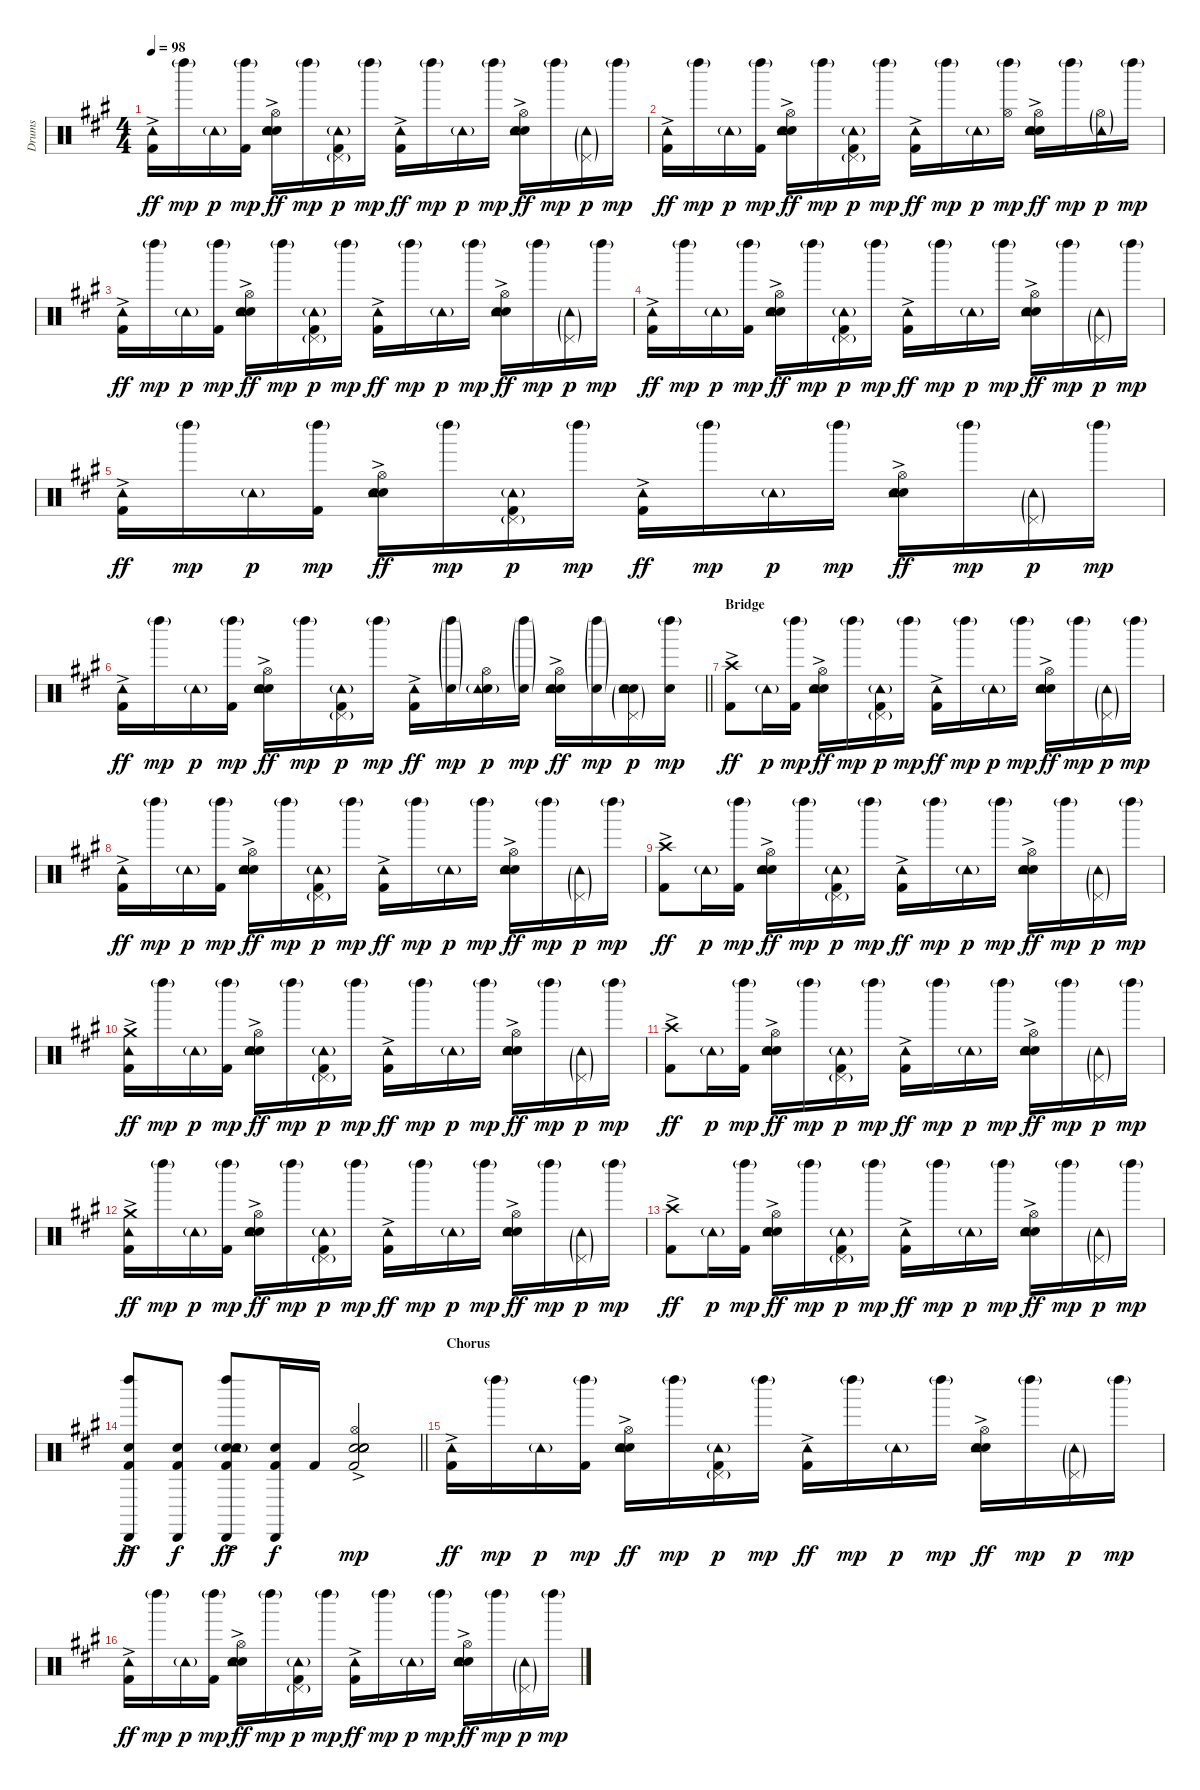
\track ("Drums" "Drums") {instrument percussion}
\staff {score}
\articulation defaults
\ts (4 4)
\tempo 98
\clef neutral
\ks a
("Kick (hit) 2"{ac} "Tambourine (hit)").16{dy ff} "Left Maraca (hit)"{g}.16{dy mp} "Tambourine (hit)"{g}.16{dy p} ("Kick (hit) 2" "Left Maraca (hit)"{g}).16{dy mp} ("Snare (hit) 2"{ac} "Electric Snare (hit)" "Hi-Hat (open)" "Tambourine (hit)").16{dy ff} "Left Maraca (hit)"{g}.16{dy mp} ("Kick (hit) 2" "Pedal Hi-Hat (hit)"{g} "Tambourine (hit)"{g}).16{dy p} "Left Maraca (hit)"{g}.16{dy mp} ("Kick (hit) 2"{ac} "Tambourine (hit)").16{dy ff} "Left Maraca (hit)"{g}.16{dy mp} "Tambourine (hit)"{g}.16{dy p} "Left Maraca (hit)"{g}.16{dy mp} ("Snare (hit) 2"{ac} "Electric Snare (hit)" "Hi-Hat (open)" "Tambourine (hit)").16{dy ff} "Left Maraca (hit)"{g}.16{dy mp} ("Pedal Hi-Hat (hit)"{g} "Tambourine (hit)"{g}).16{dy p} "Left Maraca (hit)"{g}.16{dy mp} |
("Kick (hit) 2"{ac} "Tambourine (hit)").16{dy ff} "Left Maraca (hit)"{g}.16{dy mp} "Tambourine (hit)"{g}.16{dy p} ("Kick (hit) 2" "Left Maraca (hit)"{g}).16{dy mp} ("Snare (hit) 2"{ac} "Electric Snare (hit)" "Hi-Hat (open)" "Tambourine (hit)").16{dy ff} "Left Maraca (hit)"{g}.16{dy mp} ("Kick (hit) 2" "Pedal Hi-Hat (hit)"{g} "Tambourine (hit)"{g}).16{dy p} "Left Maraca (hit)"{g}.16{dy mp} ("Kick (hit) 2"{ac} "Tambourine (hit)").16{dy ff} "Left Maraca (hit)"{g}.16{dy mp} "Tambourine (hit)"{g}.16{dy p} ("Hi-Hat (open)" "Left Maraca (hit)"{g}).16{dy mp} ("Snare (hit) 2"{ac} "Electric Snare (hit)" "Hi-Hat (open)" "Tambourine (hit)").16{dy ff} "Left Maraca (hit)"{g}.16{dy mp} ("Hi-Hat (open)"{g} "Tambourine (hit)"{g}).16{dy p} "Left Maraca (hit)"{g}.16{dy mp} |
("Kick (hit) 2"{ac} "Tambourine (hit)").16{dy ff} "Left Maraca (hit)"{g}.16{dy mp} "Tambourine (hit)"{g}.16{dy p} ("Kick (hit) 2" "Left Maraca (hit)"{g}).16{dy mp} ("Snare (hit) 2"{ac} "Electric Snare (hit)" "Hi-Hat (open)" "Tambourine (hit)").16{dy ff} "Left Maraca (hit)"{g}.16{dy mp} ("Kick (hit) 2" "Pedal Hi-Hat (hit)"{g} "Tambourine (hit)"{g}).16{dy p} "Left Maraca (hit)"{g}.16{dy mp} ("Kick (hit) 2"{ac} "Tambourine (hit)").16{dy ff} "Left Maraca (hit)"{g}.16{dy mp} "Tambourine (hit)"{g}.16{dy p} "Left Maraca (hit)"{g}.16{dy mp} ("Snare (hit) 2"{ac} "Electric Snare (hit)" "Hi-Hat (open)" "Tambourine (hit)").16{dy ff} "Left Maraca (hit)"{g}.16{dy mp} ("Pedal Hi-Hat (hit)"{g} "Tambourine (hit)"{g}).16{dy p} "Left Maraca (hit)"{g}.16{dy mp} |
("Kick (hit) 2"{ac} "Tambourine (hit)").16{dy ff} "Left Maraca (hit)"{g}.16{dy mp} "Tambourine (hit)"{g}.16{dy p} ("Kick (hit) 2" "Left Maraca (hit)"{g}).16{dy mp} ("Snare (hit) 2"{ac} "Electric Snare (hit)" "Hi-Hat (open)" "Tambourine (hit)").16{dy ff} "Left Maraca (hit)"{g}.16{dy mp} ("Kick (hit) 2" "Pedal Hi-Hat (hit)"{g} "Tambourine (hit)"{g}).16{dy p} "Left Maraca (hit)"{g}.16{dy mp} ("Kick (hit) 2"{ac} "Tambourine (hit)").16{dy ff} "Left Maraca (hit)"{g}.16{dy mp} "Tambourine (hit)"{g}.16{dy p} "Left Maraca (hit)"{g}.16{dy mp} ("Snare (hit) 2"{ac} "Electric Snare (hit)" "Hi-Hat (open)" "Tambourine (hit)").16{dy ff} "Left Maraca (hit)"{g}.16{dy mp} ("Pedal Hi-Hat (hit)"{g} "Tambourine (hit)"{g}).16{dy p} "Left Maraca (hit)"{g}.16{dy mp} |
("Kick (hit) 2"{ac} "Tambourine (hit)").16{dy ff} "Left Maraca (hit)"{g}.16{dy mp} "Tambourine (hit)"{g}.16{dy p} ("Kick (hit) 2" "Left Maraca (hit)"{g}).16{dy mp} ("Snare (hit) 2"{ac} "Electric Snare (hit)" "Hi-Hat (open)" "Tambourine (hit)").16{dy ff} "Left Maraca (hit)"{g}.16{dy mp} ("Kick (hit) 2" "Pedal Hi-Hat (hit)"{g} "Tambourine (hit)"{g}).16{dy p} "Left Maraca (hit)"{g}.16{dy mp} ("Kick (hit) 2"{ac} "Tambourine (hit)").16{dy ff} "Left Maraca (hit)"{g}.16{dy mp} "Tambourine (hit)"{g}.16{dy p} "Left Maraca (hit)"{g}.16{dy mp} ("Snare (hit) 2"{ac} "Electric Snare (hit)" "Hi-Hat (open)" "Tambourine (hit)").16{dy ff} "Left Maraca (hit)"{g}.16{dy mp} ("Pedal Hi-Hat (hit)"{g} "Tambourine (hit)"{g}).16{dy p} "Left Maraca (hit)"{g}.16{dy mp} |
\barLineRight lightlight
("Kick (hit) 2"{ac} "Tambourine (hit)").16{dy ff} "Left Maraca (hit)"{g}.16{dy mp} "Tambourine (hit)"{g}.16{dy p} ("Kick (hit) 2" "Left Maraca (hit)"{g}).16{dy mp} ("Snare (hit) 2"{ac} "Electric Snare (hit)" "Hi-Hat (open)" "Tambourine (hit)").16{dy ff} "Left Maraca (hit)"{g}.16{dy mp} ("Kick (hit) 2" "Pedal Hi-Hat (hit)"{g} "Tambourine (hit)"{g}).16{dy p} "Left Maraca (hit)"{g}.16{dy mp} ("Kick (hit) 2"{ac} "Tambourine (hit)").16{dy ff} ("Snare (hit) 2"{g} "Left Maraca (hit)"{g}).16{dy mp} ("Snare (hit) 2" "Hi-Hat (open)" "Tambourine (hit)"{g}).16{dy p} ("Snare (hit) 2"{g} "Left Maraca (hit)"{g}).16{dy mp} ("Snare (hit) 2"{ac} "Electric Snare (hit)" "Hi-Hat (open)" "Tambourine (hit)").16{dy ff} ("Snare (hit) 2"{g} "Left Maraca (hit)"{g}).16{dy mp} ("Snare (hit) 2" "Electric Snare (hit)" "Pedal Hi-Hat (hit)"{g} "Tambourine (hit)"{g}).16{dy p} ("Snare (hit) 2" "Left Maraca (hit)"{g}).16{dy mp} |
\section ("" "Bridge")
("Kick (hit) 2"{ac} "Crash high (hit)").8{dy ff} "Tambourine (hit)"{g}.16{dy p} ("Kick (hit) 2" "Left Maraca (hit)"{g}).16{dy mp} ("Snare (hit) 2"{ac} "Electric Snare (hit)" "Hi-Hat (open)" "Tambourine (hit)").16{dy ff} "Left Maraca (hit)"{g}.16{dy mp} ("Kick (hit) 2" "Pedal Hi-Hat (hit)"{g} "Tambourine (hit)"{g}).16{dy p} "Left Maraca (hit)"{g}.16{dy mp} ("Kick (hit) 2"{ac} "Tambourine (hit)").16{dy ff} "Left Maraca (hit)"{g}.16{dy mp} "Tambourine (hit)"{g}.16{dy p} "Left Maraca (hit)"{g}.16{dy mp} ("Snare (hit) 2"{ac} "Electric Snare (hit)" "Hi-Hat (open)" "Tambourine (hit)").16{dy ff} "Left Maraca (hit)"{g}.16{dy mp} ("Pedal Hi-Hat (hit)"{g} "Tambourine (hit)"{g}).16{dy p} "Left Maraca (hit)"{g}.16{dy mp} |
("Kick (hit) 2"{ac} "Tambourine (hit)").16{dy ff} "Left Maraca (hit)"{g}.16{dy mp} "Tambourine (hit)"{g}.16{dy p} ("Kick (hit) 2" "Left Maraca (hit)"{g}).16{dy mp} ("Snare (hit) 2"{ac} "Electric Snare (hit)" "Hi-Hat (open)" "Tambourine (hit)").16{dy ff} "Left Maraca (hit)"{g}.16{dy mp} ("Kick (hit) 2" "Pedal Hi-Hat (hit)"{g} "Tambourine (hit)"{g}).16{dy p} "Left Maraca (hit)"{g}.16{dy mp} ("Kick (hit) 2"{ac} "Tambourine (hit)").16{dy ff} "Left Maraca (hit)"{g}.16{dy mp} "Tambourine (hit)"{g}.16{dy p} "Left Maraca (hit)"{g}.16{dy mp} ("Snare (hit) 2"{ac} "Electric Snare (hit)" "Hi-Hat (open)" "Tambourine (hit)").16{dy ff} "Left Maraca (hit)"{g}.16{dy mp} ("Pedal Hi-Hat (hit)"{g} "Tambourine (hit)"{g}).16{dy p} "Left Maraca (hit)"{g}.16{dy mp} |
("Kick (hit) 2"{ac} "Crash high (hit)").8{dy ff} "Tambourine (hit)"{g}.16{dy p} ("Kick (hit) 2" "Left Maraca (hit)"{g}).16{dy mp} ("Snare (hit) 2"{ac} "Electric Snare (hit)" "Hi-Hat (open)" "Tambourine (hit)").16{dy ff} "Left Maraca (hit)"{g}.16{dy mp} ("Kick (hit) 2" "Pedal Hi-Hat (hit)"{g} "Tambourine (hit)"{g}).16{dy p} "Left Maraca (hit)"{g}.16{dy mp} ("Kick (hit) 2"{ac} "Tambourine (hit)").16{dy ff} "Left Maraca (hit)"{g}.16{dy mp} "Tambourine (hit)"{g}.16{dy p} "Left Maraca (hit)"{g}.16{dy mp} ("Snare (hit) 2"{ac} "Electric Snare (hit)" "Hi-Hat (open)" "Tambourine (hit)").16{dy ff} "Left Maraca (hit)"{g}.16{dy mp} ("Pedal Hi-Hat (hit)"{g} "Tambourine (hit)"{g}).16{dy p} "Left Maraca (hit)"{g}.16{dy mp} |
("Kick (hit) 2"{ac} "Crash medium (hit)" "Tambourine (hit)").16{dy ff} "Left Maraca (hit)"{g}.16{dy mp} "Tambourine (hit)"{g}.16{dy p} ("Kick (hit) 2" "Left Maraca (hit)"{g}).16{dy mp} ("Snare (hit) 2"{ac} "Electric Snare (hit)" "Hi-Hat (open)" "Tambourine (hit)").16{dy ff} "Left Maraca (hit)"{g}.16{dy mp} ("Kick (hit) 2" "Pedal Hi-Hat (hit)"{g} "Tambourine (hit)"{g}).16{dy p} "Left Maraca (hit)"{g}.16{dy mp} ("Kick (hit) 2"{ac} "Tambourine (hit)").16{dy ff} "Left Maraca (hit)"{g}.16{dy mp} "Tambourine (hit)"{g}.16{dy p} "Left Maraca (hit)"{g}.16{dy mp} ("Snare (hit) 2"{ac} "Electric Snare (hit)" "Hi-Hat (open)" "Tambourine (hit)").16{dy ff} "Left Maraca (hit)"{g}.16{dy mp} ("Pedal Hi-Hat (hit)"{g} "Tambourine (hit)"{g}).16{dy p} "Left Maraca (hit)"{g}.16{dy mp} |
("Kick (hit) 2"{ac} "Crash high (hit)").8{dy ff} "Tambourine (hit)"{g}.16{dy p} ("Kick (hit) 2" "Left Maraca (hit)"{g}).16{dy mp} ("Snare (hit) 2"{ac} "Electric Snare (hit)" "Hi-Hat (open)" "Tambourine (hit)").16{dy ff} "Left Maraca (hit)"{g}.16{dy mp} ("Kick (hit) 2" "Pedal Hi-Hat (hit)"{g} "Tambourine (hit)"{g}).16{dy p} "Left Maraca (hit)"{g}.16{dy mp} ("Kick (hit) 2"{ac} "Tambourine (hit)").16{dy ff} "Left Maraca (hit)"{g}.16{dy mp} "Tambourine (hit)"{g}.16{dy p} "Left Maraca (hit)"{g}.16{dy mp} ("Snare (hit) 2"{ac} "Electric Snare (hit)" "Hi-Hat (open)" "Tambourine (hit)").16{dy ff} "Left Maraca (hit)"{g}.16{dy mp} ("Pedal Hi-Hat (hit)"{g} "Tambourine (hit)"{g}).16{dy p} "Left Maraca (hit)"{g}.16{dy mp} |
("Kick (hit) 2"{ac} "Crash medium (hit)" "Tambourine (hit)").16{dy ff} "Left Maraca (hit)"{g}.16{dy mp} "Tambourine (hit)"{g}.16{dy p} ("Kick (hit) 2" "Left Maraca (hit)"{g}).16{dy mp} ("Snare (hit) 2"{ac} "Electric Snare (hit)" "Hi-Hat (open)" "Tambourine (hit)").16{dy ff} "Left Maraca (hit)"{g}.16{dy mp} ("Kick (hit) 2" "Pedal Hi-Hat (hit)"{g} "Tambourine (hit)"{g}).16{dy p} "Left Maraca (hit)"{g}.16{dy mp} ("Kick (hit) 2"{ac} "Tambourine (hit)").16{dy ff} "Left Maraca (hit)"{g}.16{dy mp} "Tambourine (hit)"{g}.16{dy p} "Left Maraca (hit)"{g}.16{dy mp} ("Snare (hit) 2"{ac} "Electric Snare (hit)" "Hi-Hat (open)" "Tambourine (hit)").16{dy ff} "Left Maraca (hit)"{g}.16{dy mp} ("Pedal Hi-Hat (hit)"{g} "Tambourine (hit)"{g}).16{dy p} "Left Maraca (hit)"{g}.16{dy mp} |
("Kick (hit) 2"{ac} "Crash high (hit)").8{dy ff} "Tambourine (hit)"{g}.16{dy p} ("Kick (hit) 2" "Left Maraca (hit)"{g}).16{dy mp} ("Snare (hit) 2"{ac} "Electric Snare (hit)" "Hi-Hat (open)" "Tambourine (hit)").16{dy ff} "Left Maraca (hit)"{g}.16{dy mp} ("Kick (hit) 2" "Pedal Hi-Hat (hit)"{g} "Tambourine (hit)"{g}).16{dy p} "Left Maraca (hit)"{g}.16{dy mp} ("Kick (hit) 2"{ac} "Tambourine (hit)").16{dy ff} "Left Maraca (hit)"{g}.16{dy mp} "Tambourine (hit)"{g}.16{dy p} "Left Maraca (hit)"{g}.16{dy mp} ("Snare (hit) 2"{ac} "Electric Snare (hit)" "Hi-Hat (open)" "Tambourine (hit)").16{dy ff} "Left Maraca (hit)"{g}.16{dy mp} ("Pedal Hi-Hat (hit)"{g} "Tambourine (hit)"{g}).16{dy p} "Left Maraca (hit)"{g}.16{dy mp} |
\barLineRight lightlight
("Kick (hit) 2"{ac} "Snare (hit) 2" "Cabasa (hit)" "Left Maraca (hit)").8{dy ff} ("Kick (hit) 2" "Snare (hit) 2" "Cabasa (hit)").8{dy f} ("Kick (hit) 2"{ac} "Snare (hit) 2"{ac} "Electric Snare (hit)" "Tambourine (hit)"{g} "Cabasa (hit)" "Left Maraca (hit)").8{dy ff} ("Kick (hit) 2" "Snare (hit) 2" "Cabasa (hit)").16{dy f} "Kick (hit) 2".16 ("Kick (hit) 2"{ac} "Snare (hit) 2"{ac} "Electric Snare (hit)" "Hand Clap (hit)" "Electric Snare (hit)" "Hi-Hat (open)").2{dy mp} |
\section ("" "Chorus")
("Kick (hit) 2"{ac} "Tambourine (hit)").16{dy ff} "Left Maraca (hit)"{g}.16{dy mp} "Tambourine (hit)"{g}.16{dy p} ("Kick (hit) 2" "Left Maraca (hit)"{g}).16{dy mp} ("Snare (hit) 2"{ac} "Electric Snare (hit)" "Hi-Hat (open)" "Tambourine (hit)").16{dy ff} "Left Maraca (hit)"{g}.16{dy mp} ("Kick (hit) 2" "Pedal Hi-Hat (hit)"{g} "Tambourine (hit)"{g}).16{dy p} "Left Maraca (hit)"{g}.16{dy mp} ("Kick (hit) 2"{ac} "Tambourine (hit)").16{dy ff} "Left Maraca (hit)"{g}.16{dy mp} "Tambourine (hit)"{g}.16{dy p} "Left Maraca (hit)"{g}.16{dy mp} ("Snare (hit) 2"{ac} "Electric Snare (hit)" "Hi-Hat (open)" "Tambourine (hit)").16{dy ff} "Left Maraca (hit)"{g}.16{dy mp} ("Pedal Hi-Hat (hit)"{g} "Tambourine (hit)"{g}).16{dy p} "Left Maraca (hit)"{g}.16{dy mp} |
("Kick (hit) 2"{ac} "Tambourine (hit)").16{dy ff} "Left Maraca (hit)"{g}.16{dy mp} "Tambourine (hit)"{g}.16{dy p} ("Kick (hit) 2" "Left Maraca (hit)"{g}).16{dy mp} ("Snare (hit) 2"{ac} "Electric Snare (hit)" "Hi-Hat (open)" "Tambourine (hit)").16{dy ff} "Left Maraca (hit)"{g}.16{dy mp} ("Kick (hit) 2" "Pedal Hi-Hat (hit)"{g} "Tambourine (hit)"{g}).16{dy p} "Left Maraca (hit)"{g}.16{dy mp} ("Kick (hit) 2"{ac} "Tambourine (hit)").16{dy ff} "Left Maraca (hit)"{g}.16{dy mp} "Tambourine (hit)"{g}.16{dy p} "Left Maraca (hit)"{g}.16{dy mp} ("Snare (hit) 2"{ac} "Electric Snare (hit)" "Hi-Hat (open)" "Tambourine (hit)").16{dy ff} "Left Maraca (hit)"{g}.16{dy mp} ("Pedal Hi-Hat (hit)"{g} "Tambourine (hit)"{g}).16{dy p} "Left Maraca (hit)"{g}.16{dy mp}
